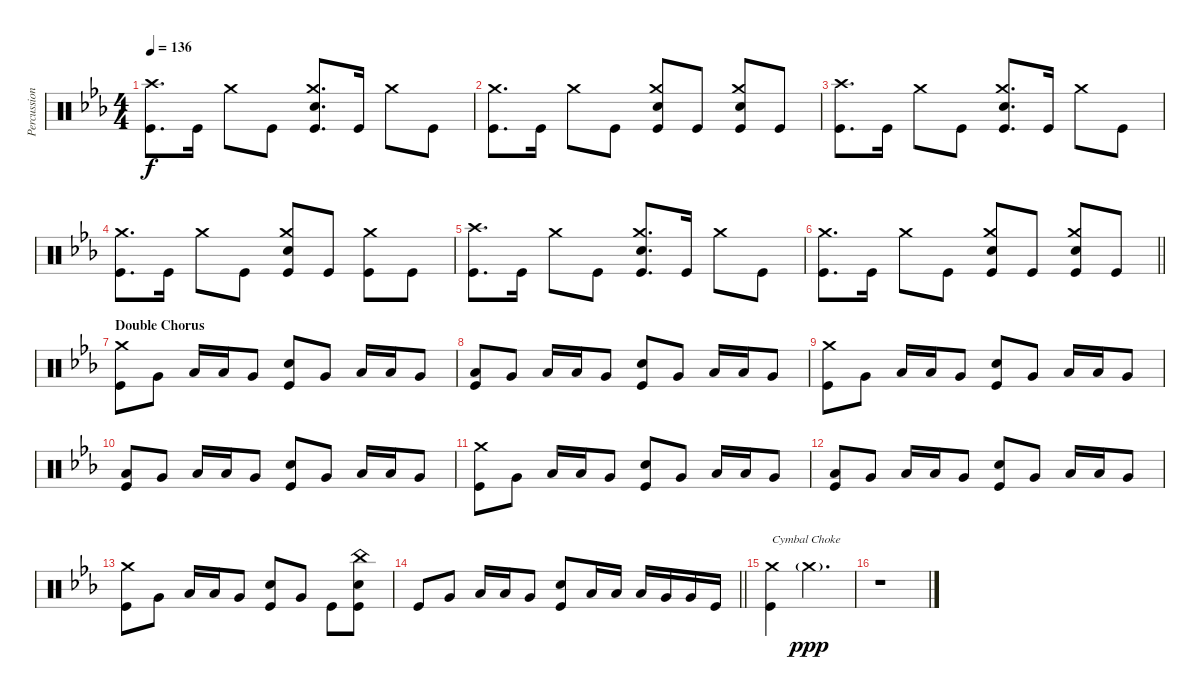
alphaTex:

\track ("Percussion" "Percussion") {instrument percussion}
\staff {score}
\articulation defaults
\ts (4 4)
\tempo 136
\clef neutral
\ks eb
("Crash high (hit)" "Kick (hit)").8{d dy f} "Kick (hit)".16 "Crash medium (hit)".8 "Kick (hit)".8 ("Crash medium (hit)" "Electric Snare (hit)" "Kick (hit)").8{d} "Kick (hit)".16 "Crash medium (hit)".8 "Kick (hit)".8 |
("Crash medium (hit)" "Kick (hit)").8{d} "Kick (hit)".16 "Crash medium (hit)".8 "Kick (hit)".8 ("Crash medium (hit)" "Electric Snare (hit)" "Kick (hit)").8 "Kick (hit)".8 ("Crash medium (hit)" "Electric Snare (hit)" "Kick (hit)").8 "Kick (hit)".8 |
("Crash high (hit)" "Kick (hit)").8{d} "Kick (hit)".16 "Crash medium (hit)".8 "Kick (hit)".8 ("Crash medium (hit)" "Electric Snare (hit)" "Kick (hit)").8{d} "Kick (hit)".16 "Crash medium (hit)".8 "Kick (hit)".8 |
("Crash medium (hit)" "Kick (hit)").8{d} "Kick (hit)".16 "Crash medium (hit)".8 "Kick (hit)".8 ("Crash medium (hit)" "Electric Snare (hit)" "Kick (hit)").8 "Kick (hit)".8 ("Crash medium (hit)" "Kick (hit)").8 "Kick (hit)".8 |
("Crash high (hit)" "Kick (hit)").8{d} "Kick (hit)".16 "Crash medium (hit)".8 "Kick (hit)".8 ("Crash medium (hit)" "Electric Snare (hit)" "Kick (hit)").8{d} "Kick (hit)".16 "Crash medium (hit)".8 "Kick (hit)".8 |
\barLineRight lightlight
("Crash medium (hit)" "Kick (hit)").8{d} "Kick (hit)".16 "Crash medium (hit)".8 "Kick (hit)".8 ("Crash medium (hit)" "Electric Snare (hit)" "Kick (hit)").8 "Kick (hit)".8 ("Crash medium (hit)" "Electric Snare (hit)" "Kick (hit)").8 "Kick (hit)".8 |
\section ("" "Double Chorus")
("Crash medium (hit)" "Kick (hit)").8 "Very Low Tom (hit)".8 "Low Tom (hit)".16 "Low Tom (hit)".16 "Very Low Tom (hit)".8 ("Electric Snare (hit)" "Kick (hit)").8 "Very Low Tom (hit)".8 "Low Tom (hit)".16 "Low Tom (hit)".16 "Very Low Tom (hit)".8 |
("Low Tom (hit)" "Kick (hit)").8 "Very Low Tom (hit)".8 "Low Tom (hit)".16 "Low Tom (hit)".16 "Very Low Tom (hit)".8 ("Electric Snare (hit)" "Kick (hit)").8 "Very Low Tom (hit)".8 "Low Tom (hit)".16 "Low Tom (hit)".16 "Very Low Tom (hit)".8 |
("Crash medium (hit)" "Kick (hit)").8 "Very Low Tom (hit)".8 "Low Tom (hit)".16 "Low Tom (hit)".16 "Very Low Tom (hit)".8 ("Electric Snare (hit)" "Kick (hit)").8 "Very Low Tom (hit)".8 "Low Tom (hit)".16 "Low Tom (hit)".16 "Very Low Tom (hit)".8 |
("Low Tom (hit)" "Kick (hit)").8 "Very Low Tom (hit)".8 "Low Tom (hit)".16 "Low Tom (hit)".16 "Very Low Tom (hit)".8 ("Electric Snare (hit)" "Kick (hit)").8 "Very Low Tom (hit)".8 "Low Tom (hit)".16 "Low Tom (hit)".16 "Very Low Tom (hit)".8 |
("Crash medium (hit)" "Kick (hit)").8 "Very Low Tom (hit)".8 "Low Tom (hit)".16 "Low Tom (hit)".16 "Very Low Tom (hit)".8 ("Electric Snare (hit)" "Kick (hit)").8 "Very Low Tom (hit)".8 "Low Tom (hit)".16 "Low Tom (hit)".16 "Very Low Tom (hit)".8 |
("Low Tom (hit)" "Kick (hit)").8 "Very Low Tom (hit)".8 "Low Tom (hit)".16 "Low Tom (hit)".16 "Very Low Tom (hit)".8 ("Electric Snare (hit)" "Kick (hit)").8 "Very Low Tom (hit)".8 "Low Tom (hit)".16 "Low Tom (hit)".16 "Very Low Tom (hit)".8 |
("Crash medium (hit)" "Kick (hit)").8 "Very Low Tom (hit)".8 "Low Tom (hit)".16 "Low Tom (hit)".16 "Very Low Tom (hit)".8 ("Electric Snare (hit)" "Kick (hit)").8 "Very Low Tom (hit)".8 "Kick (hit)".8 ("China (hit)" "Electric Snare (hit)" "Kick (hit)").8 |
\barLineRight lightlight "Kick (hit)".8 "Very Low Tom (hit)".8 "Low Tom (hit)".16 "Low Tom (hit)".16 "Very Low Tom (hit)".8
("Electric Snare (hit)" "Kick (hit)").8 "Low Tom (hit)".16 "Low Tom (hit)".16 "Low Tom (hit)".16 "Very Low Tom (hit)".16 "Very Low Tom (hit)".16 "Kick (hit)".16 |
("Crash medium (hit)" "Kick (hit)").4{txt "Cymbal Choke"} "Crash medium (hit)"{g}.2{d dy ppp volume 0} |
r.1
